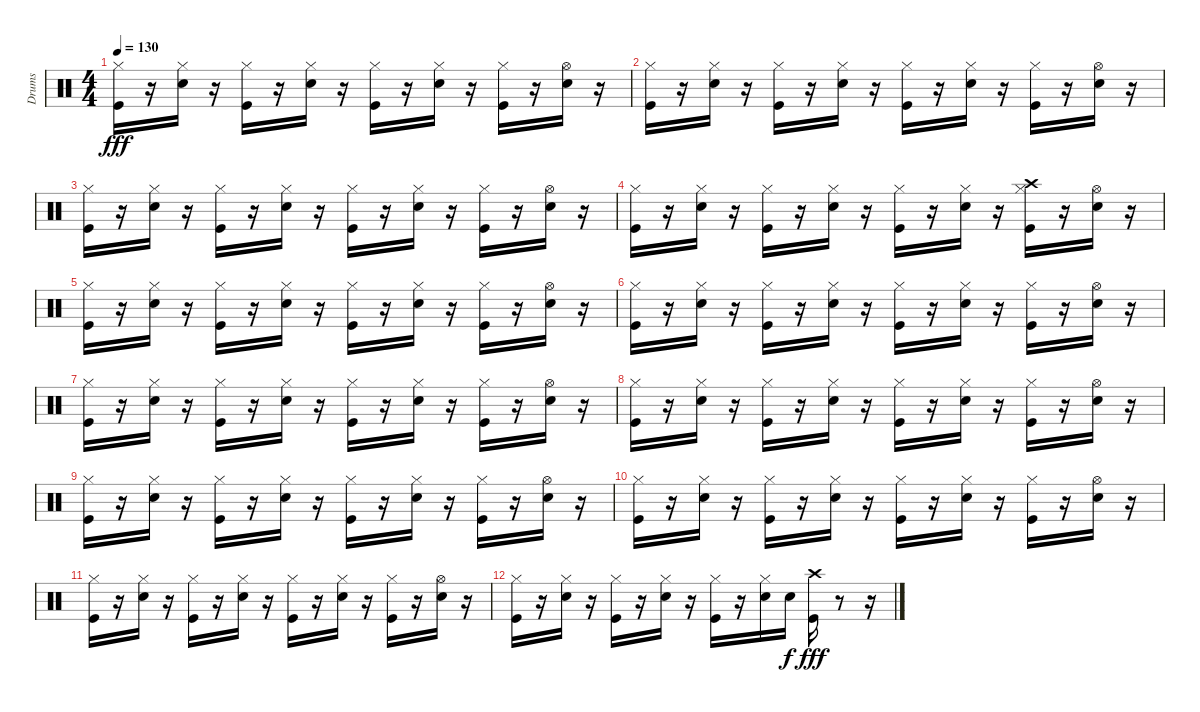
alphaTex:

\track ("Drums" "Drums") {instrument percussion}
\staff {score}
\articulation defaults
\ts (4 4)
\tempo 130
\clef neutral
\ks c
("Hi-Hat (closed)" "Kick (hit)").16{dy fff} r.16 ("Hi-Hat (closed)" "Electric Snare (hit)").16 r.16 ("Hi-Hat (closed)" "Kick (hit)").16 r.16 ("Hi-Hat (closed)" "Electric Snare (hit)").16 r.16 ("Hi-Hat (closed)" "Kick (hit)").16 r.16 ("Hi-Hat (closed)" "Electric Snare (hit)").16 r.16 ("Hi-Hat (closed)" "Kick (hit)").16 r.16 ("Hi-Hat (open)" "Electric Snare (hit)").16 r.16 |
("Hi-Hat (closed)" "Kick (hit)").16 r.16 ("Hi-Hat (closed)" "Electric Snare (hit)").16 r.16 ("Hi-Hat (closed)" "Kick (hit)").16 r.16 ("Hi-Hat (closed)" "Electric Snare (hit)").16 r.16 ("Hi-Hat (closed)" "Kick (hit)").16 r.16 ("Hi-Hat (closed)" "Electric Snare (hit)").16 r.16 ("Hi-Hat (closed)" "Kick (hit)").16 r.16 ("Hi-Hat (open)" "Electric Snare (hit)").16 r.16 |
("Hi-Hat (closed)" "Kick (hit)").16 r.16 ("Hi-Hat (closed)" "Electric Snare (hit)").16 r.16 ("Hi-Hat (closed)" "Kick (hit)").16 r.16 ("Hi-Hat (closed)" "Electric Snare (hit)").16 r.16 ("Hi-Hat (closed)" "Kick (hit)").16 r.16 ("Hi-Hat (closed)" "Electric Snare (hit)").16 r.16 ("Hi-Hat (closed)" "Kick (hit)").16 r.16 ("Hi-Hat (open)" "Electric Snare (hit)").16 r.16 |
("Hi-Hat (closed)" "Kick (hit)").16 r.16 ("Hi-Hat (closed)" "Electric Snare (hit)").16 r.16 ("Hi-Hat (closed)" "Kick (hit)").16 r.16 ("Hi-Hat (closed)" "Electric Snare (hit)").16 r.16 ("Hi-Hat (closed)" "Kick (hit)").16 r.16 ("Hi-Hat (closed)" "Electric Snare (hit)").16 r.16 ("Hi-Hat (closed)" "Crash high (hit)" "Kick (hit)").16 r.16 ("Hi-Hat (open)" "Electric Snare (hit)").16 r.16 |
("Hi-Hat (closed)" "Kick (hit)").16 r.16 ("Hi-Hat (closed)" "Electric Snare (hit)").16 r.16 ("Hi-Hat (closed)" "Kick (hit)").16 r.16 ("Hi-Hat (closed)" "Electric Snare (hit)").16 r.16 ("Hi-Hat (closed)" "Kick (hit)").16 r.16 ("Hi-Hat (closed)" "Electric Snare (hit)").16 r.16 ("Hi-Hat (closed)" "Kick (hit)").16 r.16 ("Hi-Hat (open)" "Electric Snare (hit)").16 r.16 |
("Hi-Hat (closed)" "Kick (hit)").16 r.16 ("Hi-Hat (closed)" "Electric Snare (hit)").16 r.16 ("Hi-Hat (closed)" "Kick (hit)").16 r.16 ("Hi-Hat (closed)" "Electric Snare (hit)").16 r.16 ("Hi-Hat (closed)" "Kick (hit)").16 r.16 ("Hi-Hat (closed)" "Electric Snare (hit)").16 r.16 ("Hi-Hat (closed)" "Kick (hit)").16 r.16 ("Hi-Hat (open)" "Electric Snare (hit)").16 r.16 |
("Hi-Hat (closed)" "Kick (hit)").16 r.16 ("Hi-Hat (closed)" "Electric Snare (hit)").16 r.16 ("Hi-Hat (closed)" "Kick (hit)").16 r.16 ("Hi-Hat (closed)" "Electric Snare (hit)").16 r.16 ("Hi-Hat (closed)" "Kick (hit)").16 r.16 ("Hi-Hat (closed)" "Electric Snare (hit)").16 r.16 ("Hi-Hat (closed)" "Kick (hit)").16 r.16 ("Hi-Hat (open)" "Electric Snare (hit)").16 r.16 |
("Hi-Hat (closed)" "Kick (hit)").16 r.16 ("Hi-Hat (closed)" "Electric Snare (hit)").16 r.16 ("Hi-Hat (closed)" "Kick (hit)").16 r.16 ("Hi-Hat (closed)" "Electric Snare (hit)").16 r.16 ("Hi-Hat (closed)" "Kick (hit)").16 r.16 ("Hi-Hat (closed)" "Electric Snare (hit)").16 r.16 ("Hi-Hat (closed)" "Kick (hit)").16 r.16 ("Hi-Hat (open)" "Electric Snare (hit)").16 r.16 |
("Hi-Hat (closed)" "Kick (hit)").16 r.16 ("Hi-Hat (closed)" "Electric Snare (hit)").16 r.16 ("Hi-Hat (closed)" "Kick (hit)").16 r.16 ("Hi-Hat (closed)" "Electric Snare (hit)").16 r.16 ("Hi-Hat (closed)" "Kick (hit)").16 r.16 ("Hi-Hat (closed)" "Electric Snare (hit)").16 r.16 ("Hi-Hat (closed)" "Kick (hit)").16 r.16 ("Hi-Hat (open)" "Electric Snare (hit)").16 r.16 |
("Hi-Hat (closed)" "Kick (hit)").16 r.16 ("Hi-Hat (closed)" "Electric Snare (hit)").16 r.16 ("Hi-Hat (closed)" "Kick (hit)").16 r.16 ("Hi-Hat (closed)" "Electric Snare (hit)").16 r.16 ("Hi-Hat (closed)" "Kick (hit)").16 r.16 ("Hi-Hat (closed)" "Electric Snare (hit)").16 r.16 ("Hi-Hat (closed)" "Kick (hit)").16 r.16 ("Hi-Hat (open)" "Electric Snare (hit)").16 r.16 |
("Hi-Hat (closed)" "Kick (hit)").16 r.16 ("Hi-Hat (closed)" "Electric Snare (hit)").16 r.16 ("Hi-Hat (closed)" "Kick (hit)").16 r.16 ("Hi-Hat (closed)" "Electric Snare (hit)").16 r.16 ("Hi-Hat (closed)" "Kick (hit)").16 r.16 ("Hi-Hat (closed)" "Electric Snare (hit)").16 r.16 ("Hi-Hat (closed)" "Kick (hit)").16 r.16 ("Hi-Hat (open)" "Electric Snare (hit)").16 r.16 |
("Hi-Hat (closed)" "Kick (hit)").16 r.16 ("Hi-Hat (closed)" "Electric Snare (hit)").16 r.16 ("Hi-Hat (closed)" "Kick (hit)").16 r.16 ("Hi-Hat (closed)" "Electric Snare (hit)").16 r.16 ("Hi-Hat (closed)" "Kick (hit)").16 r.16 ("Hi-Hat (closed)" "Electric Snare (hit)").16 "Electric Snare (hit)".16{dy f} ("Crash high (hit)" "Kick (hit)").16{dy fff} r.8 r.16
